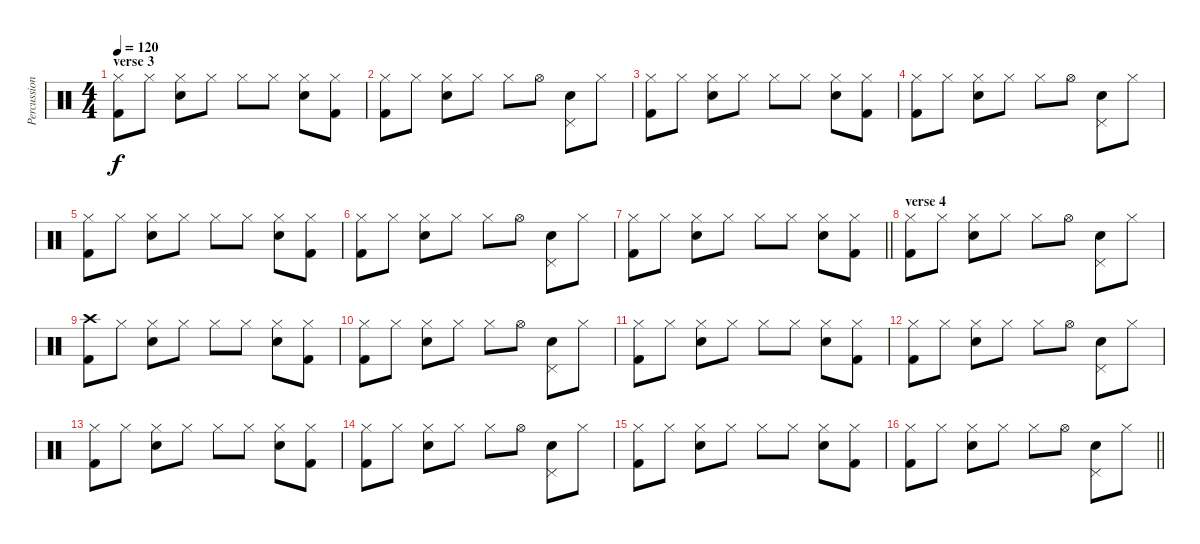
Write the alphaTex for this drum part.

\track ("Percussion" "Percussion") {instrument percussion}
\staff {score}
\articulation defaults
\ts (4 4)
\section ("" "verse 3")
\tempo 120
\clef neutral
\ks c
("Kick (hit) 2" "Hi-Hat (closed)").8{dy f} "Hi-Hat (closed)".8 ("Snare (hit) 2" "Hi-Hat (closed)").8 "Hi-Hat (closed)".8 "Hi-Hat (closed)".8 "Hi-Hat (closed)".8 ("Snare (hit) 2" "Hi-Hat (closed)").8 ("Kick (hit) 2" "Hi-Hat (closed)").8 |
("Kick (hit) 2" "Hi-Hat (closed)").8 "Hi-Hat (closed)".8 ("Snare (hit) 2" "Hi-Hat (closed)").8 "Hi-Hat (closed)".8 "Hi-Hat (closed)".8 "Hi-Hat (open)".8 ("Snare (hit) 2" "Pedal Hi-Hat (hit)").8 "Hi-Hat (closed)".8 |
("Kick (hit) 2" "Hi-Hat (closed)").8 "Hi-Hat (closed)".8 ("Snare (hit) 2" "Hi-Hat (closed)").8 "Hi-Hat (closed)".8 "Hi-Hat (closed)".8 "Hi-Hat (closed)".8 ("Snare (hit) 2" "Hi-Hat (closed)").8 ("Kick (hit) 2" "Hi-Hat (closed)").8 |
("Kick (hit) 2" "Hi-Hat (closed)").8 "Hi-Hat (closed)".8 ("Snare (hit) 2" "Hi-Hat (closed)").8 "Hi-Hat (closed)".8 "Hi-Hat (closed)".8 "Hi-Hat (open)".8 ("Snare (hit) 2" "Pedal Hi-Hat (hit)").8 "Hi-Hat (closed)".8 |
("Kick (hit) 2" "Hi-Hat (closed)").8 "Hi-Hat (closed)".8 ("Snare (hit) 2" "Hi-Hat (closed)").8 "Hi-Hat (closed)".8 "Hi-Hat (closed)".8 "Hi-Hat (closed)".8 ("Snare (hit) 2" "Hi-Hat (closed)").8 ("Kick (hit) 2" "Hi-Hat (closed)").8 |
("Kick (hit) 2" "Hi-Hat (closed)").8 "Hi-Hat (closed)".8 ("Snare (hit) 2" "Hi-Hat (closed)").8 "Hi-Hat (closed)".8 "Hi-Hat (closed)".8 "Hi-Hat (open)".8 ("Snare (hit) 2" "Pedal Hi-Hat (hit)").8 "Hi-Hat (closed)".8 |
\barLineRight lightlight
("Kick (hit) 2" "Hi-Hat (closed)").8 "Hi-Hat (closed)".8 ("Snare (hit) 2" "Hi-Hat (closed)").8 "Hi-Hat (closed)".8 "Hi-Hat (closed)".8 "Hi-Hat (closed)".8 ("Snare (hit) 2" "Hi-Hat (closed)").8 ("Kick (hit) 2" "Hi-Hat (closed)").8 |
\section ("" "verse 4")
("Kick (hit) 2" "Hi-Hat (closed)").8 "Hi-Hat (closed)".8 ("Snare (hit) 2" "Hi-Hat (closed)").8 "Hi-Hat (closed)".8 "Hi-Hat (closed)".8 "Hi-Hat (open)".8 ("Snare (hit) 2" "Pedal Hi-Hat (hit)").8 "Hi-Hat (closed)".8 |
("Kick (hit) 2" "Crash high (hit)").8 "Hi-Hat (closed)".8 ("Snare (hit) 2" "Hi-Hat (closed)").8 "Hi-Hat (closed)".8 "Hi-Hat (closed)".8 "Hi-Hat (closed)".8 ("Snare (hit) 2" "Hi-Hat (closed)").8 ("Kick (hit) 2" "Hi-Hat (closed)").8 |
("Kick (hit) 2" "Hi-Hat (closed)").8 "Hi-Hat (closed)".8 ("Snare (hit) 2" "Hi-Hat (closed)").8 "Hi-Hat (closed)".8 "Hi-Hat (closed)".8 "Hi-Hat (open)".8 ("Snare (hit) 2" "Pedal Hi-Hat (hit)").8 "Hi-Hat (closed)".8 |
("Kick (hit) 2" "Hi-Hat (closed)").8 "Hi-Hat (closed)".8 ("Snare (hit) 2" "Hi-Hat (closed)").8 "Hi-Hat (closed)".8 "Hi-Hat (closed)".8 "Hi-Hat (closed)".8 ("Snare (hit) 2" "Hi-Hat (closed)").8 ("Kick (hit) 2" "Hi-Hat (closed)").8 |
("Kick (hit) 2" "Hi-Hat (closed)").8 "Hi-Hat (closed)".8 ("Snare (hit) 2" "Hi-Hat (closed)").8 "Hi-Hat (closed)".8 "Hi-Hat (closed)".8 "Hi-Hat (open)".8 ("Snare (hit) 2" "Pedal Hi-Hat (hit)").8 "Hi-Hat (closed)".8 |
("Kick (hit) 2" "Hi-Hat (closed)").8 "Hi-Hat (closed)".8 ("Snare (hit) 2" "Hi-Hat (closed)").8 "Hi-Hat (closed)".8 "Hi-Hat (closed)".8 "Hi-Hat (closed)".8 ("Snare (hit) 2" "Hi-Hat (closed)").8 ("Kick (hit) 2" "Hi-Hat (closed)").8 |
("Kick (hit) 2" "Hi-Hat (closed)").8 "Hi-Hat (closed)".8 ("Snare (hit) 2" "Hi-Hat (closed)").8 "Hi-Hat (closed)".8 "Hi-Hat (closed)".8 "Hi-Hat (open)".8 ("Snare (hit) 2" "Pedal Hi-Hat (hit)").8 "Hi-Hat (closed)".8 |
("Kick (hit) 2" "Hi-Hat (closed)").8 "Hi-Hat (closed)".8 ("Snare (hit) 2" "Hi-Hat (closed)").8 "Hi-Hat (closed)".8 "Hi-Hat (closed)".8 "Hi-Hat (closed)".8 ("Snare (hit) 2" "Hi-Hat (closed)").8 ("Kick (hit) 2" "Hi-Hat (closed)").8 |
\barLineRight lightlight
("Kick (hit) 2" "Hi-Hat (closed)").8 "Hi-Hat (closed)".8 ("Snare (hit) 2" "Hi-Hat (closed)").8 "Hi-Hat (closed)".8 "Hi-Hat (closed)".8 "Hi-Hat (open)".8 ("Snare (hit) 2" "Pedal Hi-Hat (hit)").8 "Hi-Hat (closed)".8
